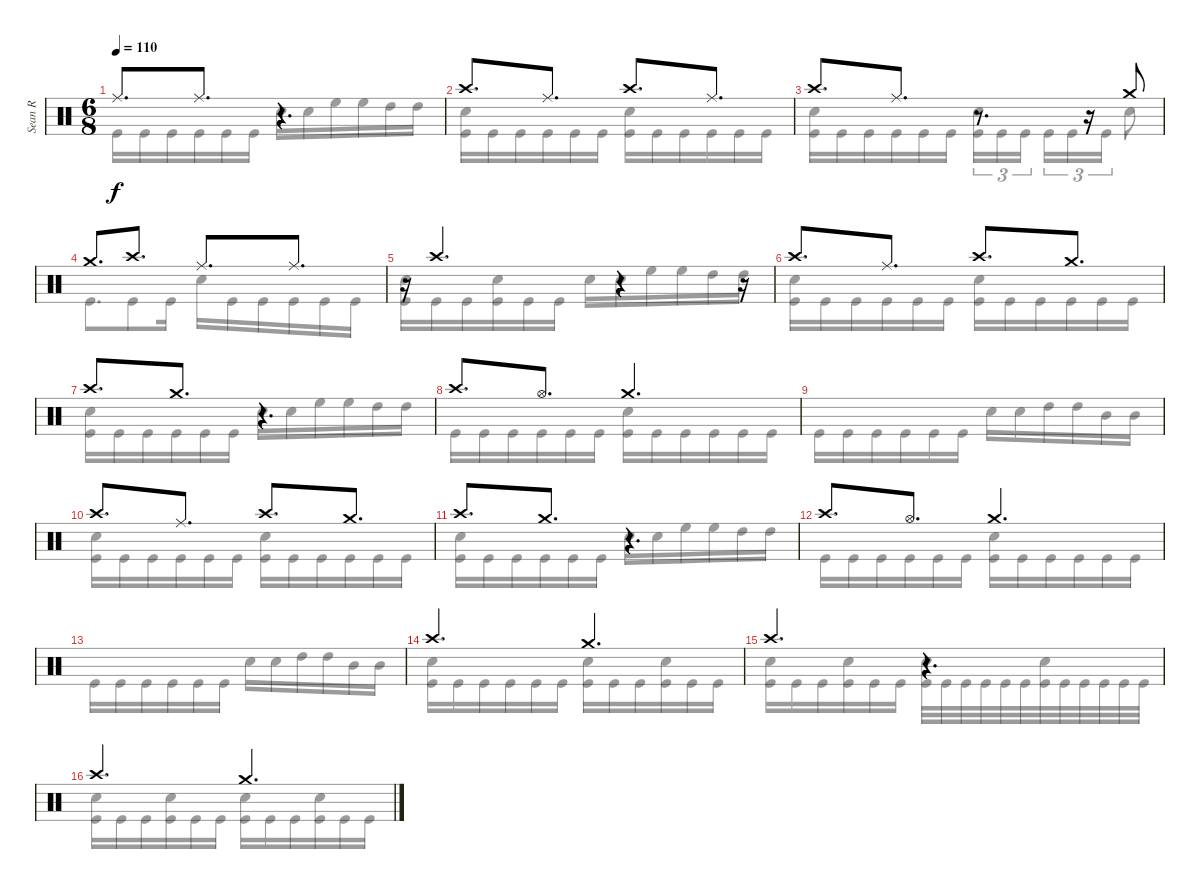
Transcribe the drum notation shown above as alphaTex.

\track ("Sean R" "Sean R") {instrument percussion}
\staff {score}
\articulation defaults
\voice
\ts (6 8)
\tempo 110
\clef neutral
\ks c "Ride (middle)".8{d dy f} "Ride (middle)".8{d}
r.4{d} |
"Crash high (hit)".8{d} "Ride (middle)".8{d} "Crash high (hit)".8{d} "Ride (middle)".8{d} |
"Crash high (hit)".8{d} "Ride (middle)".8{d} r.8{d} r.16 "Crash medium (hit)".8 |
"Crash medium (hit)".8{d} "Crash high (hit)".8{d} "Ride (middle)".8{d} "Ride (middle)".8{d} |
r.16 "Crash high (hit)".4{d} r.4 r.16 |
"Crash high (hit)".8{d} "Ride (middle)".8{d} "Crash high (hit)".8{d} "Crash medium (hit)".8{d} |
"Crash high (hit)".8{d} "Crash medium (hit)".8{d} r.4{d} |
"Crash high (hit)".8{d} "Hi-Hat (open)".8{d} "Crash medium (hit)".4{d} |
|
"Crash high (hit)".8{d} "Ride (middle)".8{d} "Crash high (hit)".8{d} "Crash medium (hit)".8{d} |
"Crash high (hit)".8{d} "Crash medium (hit)".8{d} r.4{d} |
"Crash high (hit)".8{d} "Hi-Hat (open)".8{d} "Crash medium (hit)".4{d} |
|
"Crash high (hit)".4{d} "Crash medium (hit)".4{d} |
"Crash high (hit)".4{d} r.4{d} |
"Crash high (hit)".4{d} "Crash medium (hit)".4{d}
\voice
\clef neutral
\ottava regular
\simile none
\ks c "Kick (hit)".16{dy f} "Kick (hit)".16 "Kick (hit)".16 "Kick (hit)".16 "Kick (hit)".16 "Kick (hit)".16 "Snare (hit) 2".16 "Snare (hit) 2".16 "High Floor Tom (hit)".16 "High Floor Tom (hit)".16 "High Tom (hit)".16 "High Tom (hit)".16
|
("Snare (hit) 2" "Kick (hit)").16 "Kick (hit)".16 "Kick (hit)".16 "Kick (hit)".16 "Kick (hit)".16 "Kick (hit)".16 ("Snare (hit) 2" "Kick (hit)").16 "Kick (hit)".16 "Kick (hit)".16 "Kick (hit)".16 "Kick (hit)".16 "Kick (hit)".16 |
("Snare (hit) 2" "Kick (hit)").16 "Kick (hit)".16 "Kick (hit)".16 "Kick (hit)".16 "Kick (hit)".16 "Kick (hit)".16 ("Snare (hit) 2" "Kick (hit)").16{tu (3 2)} "Kick (hit)".16{tu (3 2)} "Kick (hit)".16{tu (3 2) beam splitsecondary} "Kick (hit)".16{tu (3 2)} "Kick (hit)".16{tu (3 2)} "Kick (hit)".16{tu (3 2)} "Snare (hit) 2".8 |
"Kick (hit)".8{d} "Kick (hit)".8 "Kick (hit)".16 "Snare (hit) 2".16 "Kick (hit)".16 "Kick (hit)".16 "Kick (hit)".16 "Kick (hit)".16 "Kick (hit)".16 |
("Snare (hit) 2" "Kick (hit)").16 "Kick (hit)".16 "Kick (hit)".16 ("Snare (hit) 2" "Kick (hit)").16 "Kick (hit)".16 "Kick (hit)".16 "Snare (hit) 2".16 "Snare (hit) 2".16 "High Floor Tom (hit)".16 "High Floor Tom (hit)".16 "High Tom (hit)".16 "High Tom (hit)".16 |
("Snare (hit) 2" "Kick (hit)").16 "Kick (hit)".16 "Kick (hit)".16 "Kick (hit)".16 "Kick (hit)".16 "Kick (hit)".16 ("Snare (hit) 2" "Kick (hit)").16 "Kick (hit)".16 "Kick (hit)".16 "Kick (hit)".16 "Kick (hit)".16 "Kick (hit)".16 |
("Snare (hit) 2" "Kick (hit)").16 "Kick (hit)".16 "Kick (hit)".16 "Kick (hit)".16 "Kick (hit)".16 "Kick (hit)".16 "Snare (hit) 2".16 "Snare (hit) 2".16 "High Floor Tom (hit)".16 "High Floor Tom (hit)".16 "High Tom (hit)".16 "High Tom (hit)".16 |
"Kick (hit)".16 "Kick (hit)".16 "Kick (hit)".16 "Kick (hit)".16 "Kick (hit)".16 "Kick (hit)".16 ("Snare (hit) 2" "Kick (hit)").16 "Kick (hit)".16 "Kick (hit)".16 "Kick (hit)".16 "Kick (hit)".16 "Kick (hit)".16 |
"Kick (hit)".16 "Kick (hit)".16 "Kick (hit)".16 "Kick (hit)".16 "Kick (hit)".16 "Kick (hit)".16 "Snare (hit) 2".16 "Snare (hit) 2".16 "High Tom (hit)".16 "High Tom (hit)".16 "Mid Tom (hit)".16 "Mid Tom (hit)".16 |
("Snare (hit) 2" "Kick (hit)").16 "Kick (hit)".16 "Kick (hit)".16 "Kick (hit)".16 "Kick (hit)".16 "Kick (hit)".16 ("Snare (hit) 2" "Kick (hit)").16 "Kick (hit)".16 "Kick (hit)".16 "Kick (hit)".16 "Kick (hit)".16 "Kick (hit)".16 |
("Snare (hit) 2" "Kick (hit)").16 "Kick (hit)".16 "Kick (hit)".16 "Kick (hit)".16 "Kick (hit)".16 "Kick (hit)".16 "Snare (hit) 2".16 "Snare (hit) 2".16 "High Floor Tom (hit)".16 "High Floor Tom (hit)".16 "High Tom (hit)".16 "High Tom (hit)".16 |
"Kick (hit)".16 "Kick (hit)".16 "Kick (hit)".16 "Kick (hit)".16 "Kick (hit)".16 "Kick (hit)".16 ("Snare (hit) 2" "Kick (hit)").16 "Kick (hit)".16 "Kick (hit)".16 "Kick (hit)".16 "Kick (hit)".16 "Kick (hit)".16 |
"Kick (hit)".16 "Kick (hit)".16 "Kick (hit)".16 "Kick (hit)".16 "Kick (hit)".16 "Kick (hit)".16 "Snare (hit) 2".16 "Snare (hit) 2".16 "High Tom (hit)".16 "High Tom (hit)".16 "Mid Tom (hit)".16 "Mid Tom (hit)".16 |
("Snare (hit) 2" "Kick (hit)").16 "Kick (hit)".16 "Kick (hit)".16 "Kick (hit)".16 "Kick (hit)".16 "Kick (hit)".16 ("Snare (hit) 2" "Kick (hit)").16 "Kick (hit)".16 "Kick (hit)".16 ("Snare (hit) 2" "Kick (hit)").16 "Kick (hit)".16 "Kick (hit)".16 |
("Snare (hit) 2" "Kick (hit)").16 "Kick (hit)".16 "Kick (hit)".16 ("Snare (hit) 2" "Kick (hit)").16 "Kick (hit)".16 "Kick (hit)".16 ("Snare (hit) 2" "Kick (hit)").32 "Kick (hit)".32 "Kick (hit)".32 "Kick (hit)".32 "Kick (hit)".32 "Kick (hit)".32 ("Snare (hit) 2" "Kick (hit)").32 "Kick (hit)".32 "Kick (hit)".32 "Kick (hit)".32 "Kick (hit)".32 "Kick (hit)".32 |
("Snare (hit) 2" "Kick (hit)").16 "Kick (hit)".16 "Kick (hit)".16 ("Snare (hit) 2" "Kick (hit)").16 "Kick (hit)".16 "Kick (hit)".16 ("Snare (hit) 2" "Kick (hit)").16 "Kick (hit)".16 "Kick (hit)".16 ("Snare (hit) 2" "Kick (hit)").16 "Kick (hit)".16 "Kick (hit)".16
